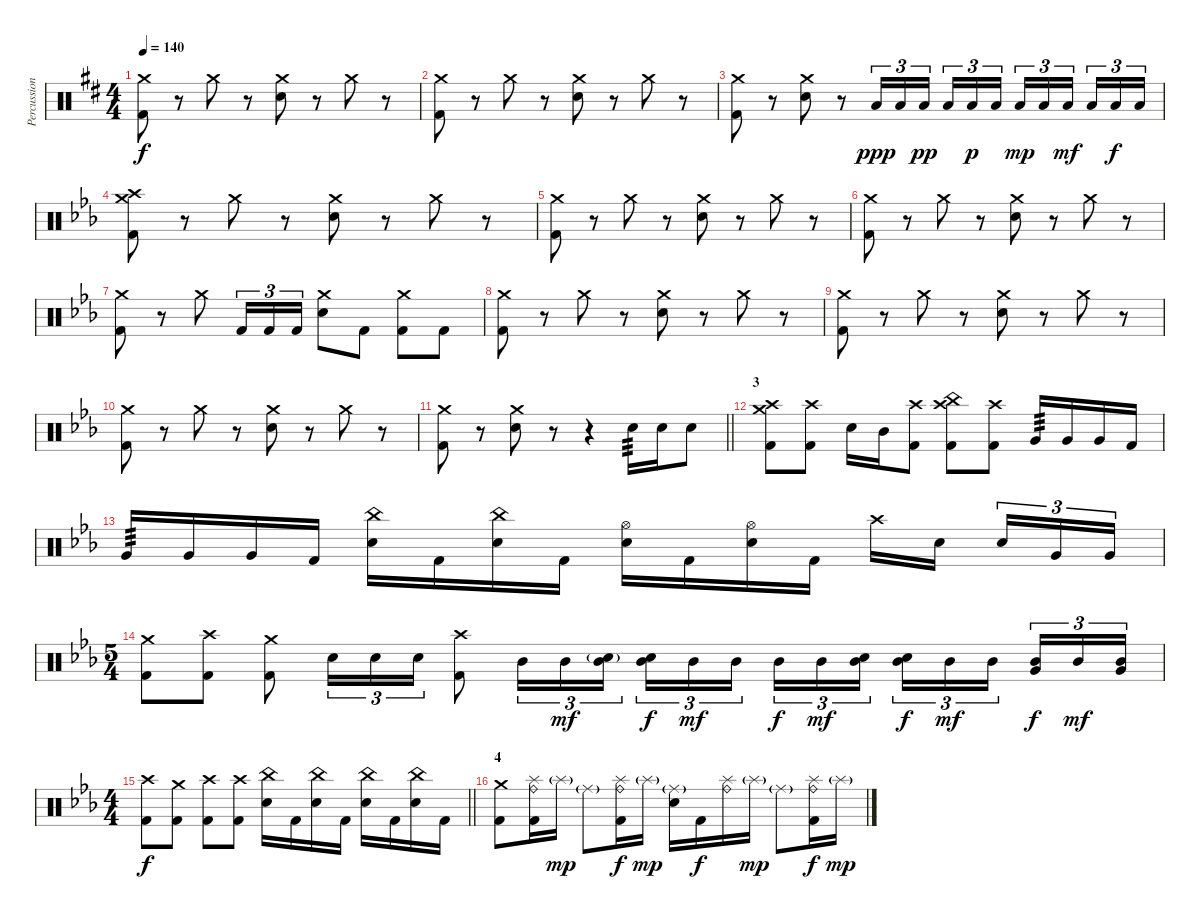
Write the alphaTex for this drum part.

\track ("Percussion" "Percussion") {instrument percussion}
\staff {score}
\articulation defaults
\ts (4 4)
\tempo 140
\clef neutral
\ks bminor
("Crash medium (hit)" "Kick (hit) 2").8{dy f} r.8 "Crash medium (hit)".8 r.8 ("Crash medium (hit)" "Snare (hit) 2").8 r.8 "Crash medium (hit)".8 r.8 |
("Crash medium (hit)" "Kick (hit) 2").8 r.8 "Crash medium (hit)".8 r.8 ("Crash medium (hit)" "Snare (hit) 2").8 r.8 "Crash medium (hit)".8 r.8 |
("Crash medium (hit)" "Kick (hit) 2").8 r.8 ("Crash medium (hit)" "Snare (hit) 2").8 r.8 "Low Floor Tom (hit)".16{tu (3 2) dy ppp} "Low Floor Tom (hit)".16{tu (3 2)} "Low Floor Tom (hit)".16{tu (3 2) dy pp beam splitsecondary} "Low Floor Tom (hit)".16{tu (3 2)} "Low Floor Tom (hit)".16{tu (3 2) dy p} "Low Floor Tom (hit)".16{tu (3 2)} "Low Floor Tom (hit)".16{tu (3 2) dy mp} "Low Floor Tom (hit)".16{tu (3 2)} "Low Floor Tom (hit)".16{tu (3 2) dy mf beam splitsecondary} "Low Floor Tom (hit)".16{tu (3 2)} "Low Floor Tom (hit)".16{tu (3 2) dy f} "Low Floor Tom (hit)".16{tu (3 2)} |
\ks cminor
("Crash medium (hit)" "Crash high (hit)" "Kick (hit) 2").8 r.8 "Crash medium (hit)".8 r.8 ("Crash medium (hit)" "Snare (hit) 2").8 r.8 "Crash medium (hit)".8 r.8 |
("Crash medium (hit)" "Kick (hit) 2").8 r.8 "Crash medium (hit)".8 r.8 ("Crash medium (hit)" "Snare (hit) 2").8 r.8 "Crash medium (hit)".8 r.8 |
("Crash medium (hit)" "Kick (hit) 2").8 r.8 "Crash medium (hit)".8 r.8 ("Crash medium (hit)" "Snare (hit) 2").8 r.8 "Crash medium (hit)".8 r.8 |
("Crash medium (hit)" "Kick (hit) 2").8 r.8 "Crash medium (hit)".8 "Kick (hit) 2".16{tu (3 2)} "Kick (hit) 2".16{tu (3 2)} "Kick (hit) 2".16{tu (3 2)} ("Crash medium (hit)" "Snare (hit) 2").8 "Kick (hit) 2".8 ("Crash medium (hit)" "Kick (hit) 2").8 "Kick (hit) 2".8 |
("Crash medium (hit)" "Kick (hit) 2").8 r.8 "Crash medium (hit)".8 r.8 ("Crash medium (hit)" "Snare (hit) 2").8 r.8 "Crash medium (hit)".8 r.8 |
("Crash medium (hit)" "Kick (hit) 2").8 r.8 "Crash medium (hit)".8 r.8 ("Crash medium (hit)" "Snare (hit) 2").8 r.8 "Crash medium (hit)".8 r.8 |
("Crash medium (hit)" "Kick (hit) 2").8 r.8 "Crash medium (hit)".8 r.8 ("Crash medium (hit)" "Snare (hit) 2").8 r.8 "Crash medium (hit)".8 r.8 |
\barLineRight lightlight
("Crash medium (hit)" "Kick (hit) 2").8 r.8 ("Crash medium (hit)" "Snare (hit) 2").8 r.8 r.4 "Snare (hit) 2".16{tp 3} "Snare (hit) 2".16 "Snare (hit) 2".8 |
\section ("" "3")
("Crash medium (hit)" "Crash high (hit)" "Kick (hit) 2").8 ("Crash high (hit)" "Kick (hit) 2").8 "Snare (hit) 2".16 "Mid Tom (hit)".16 ("Crash high (hit)" "Kick (hit) 2").8 ("China (hit)" "Crash high (hit)" "Kick (hit) 2").8 ("Crash high (hit)" "Kick (hit) 2").8 "Very Low Tom (hit)".16{tp 3} "Very Low Tom (hit)".16 "Very Low Tom (hit)".16 "Kick (hit) 2".16 |
"Very Low Tom (hit)".16{tp 3} "Very Low Tom (hit)".16 "Very Low Tom (hit)".16 "Kick (hit) 2".16 ("China (hit)" "Snare (hit) 2").16 "Kick (hit) 2".16 ("China (hit)" "Snare (hit) 2").16 "Kick (hit) 2".16 ("Hi-Hat (open)" "Snare (hit) 2").16 "Kick (hit) 2".16 ("Hi-Hat (open)" "Snare (hit) 2").16 "Kick (hit) 2".16 "Crash high (hit)".16 "Snare (hit) 2".16{beam splitsecondary} "Snare (hit) 2".16{tu (3 2)} "Very Low Tom (hit)".16{tu (3 2)} "Very Low Tom (hit)".16{tu (3 2)} |
\ts (5 4)
("Crash medium (hit)" "Kick (hit) 2").8 ("Crash high (hit)" "Kick (hit) 2").8 ("Crash medium (hit)" "Kick (hit) 2").8 "Snare (hit) 2".16{tu (3 2)} "Snare (hit) 2".16{tu (3 2)} "Snare (hit) 2".16{tu (3 2)} ("Crash high (hit)" "Kick (hit) 2").8 "Mid Tom (hit)".16{tu (3 2)} "Mid Tom (hit)".16{tu (3 2) dy mf} ("Mid Tom (hit)" "Snare (hit) 2"{g}).16{tu (3 2)} ("Mid Tom (hit)" "Snare (hit) 2").16{tu (3 2) dy f} "Mid Tom (hit)".16{tu (3 2) dy mf} "Mid Tom (hit)".16{tu (3 2) beam splitsecondary} "Mid Tom (hit)".16{tu (3 2) dy f} "Mid Tom (hit)".16{tu (3 2) dy mf} ("Mid Tom (hit)" "Snare (hit) 2").16{tu (3 2)} ("Mid Tom (hit)" "Snare (hit) 2").16{tu (3 2) dy f} "Mid Tom (hit)".16{tu (3 2) dy mf} "Mid Tom (hit)".16{tu (3 2) beam splitsecondary} ("Mid Tom (hit)" "Very Low Tom (hit)").16{tu (3 2) dy f} "Mid Tom (hit)".16{tu (3 2) dy mf} ("Mid Tom (hit)" "Very Low Tom (hit)").16{tu (3 2)} |
\ts (4 4)
\barLineRight lightlight
("Crash high (hit)" "Kick (hit) 2").8{dy f} ("Crash medium (hit)" "Kick (hit) 2").8 ("Crash high (hit)" "Kick (hit) 2").8 ("Crash high (hit)" "Kick (hit) 2").8 ("China (hit)" "Snare (hit) 2").16 "Kick (hit) 2".16 ("China (hit)" "Snare (hit) 2").16 "Kick (hit) 2".16 ("China (hit)" "Snare (hit) 2").16 "Kick (hit) 2".16 ("China (hit)" "Snare (hit) 2").16 "Kick (hit) 2".16 |
\section ("" "4")
("Crash medium (hit)" "Kick (hit) 2").8 ("Ride (bell)" "Splash (hit)" "Kick (hit) 2").16 "Splash (hit)"{g}.16{dy mp} "Ride (middle)"{g}.8 ("Ride (bell)" "Splash (hit)" "Kick (hit) 2").16{dy f} "Splash (hit)"{g}.16{dy mp} ("Ride (middle)"{g} "Snare (hit) 2").16 "Kick (hit) 2".16{dy f} ("Ride (bell)" "Splash (hit)").16 "Splash (hit)"{g}.16{dy mp} "Ride (middle)"{g}.8 ("Ride (bell)" "Splash (hit)" "Kick (hit) 2").16{dy f} "Splash (hit)"{g}.16{dy mp}
